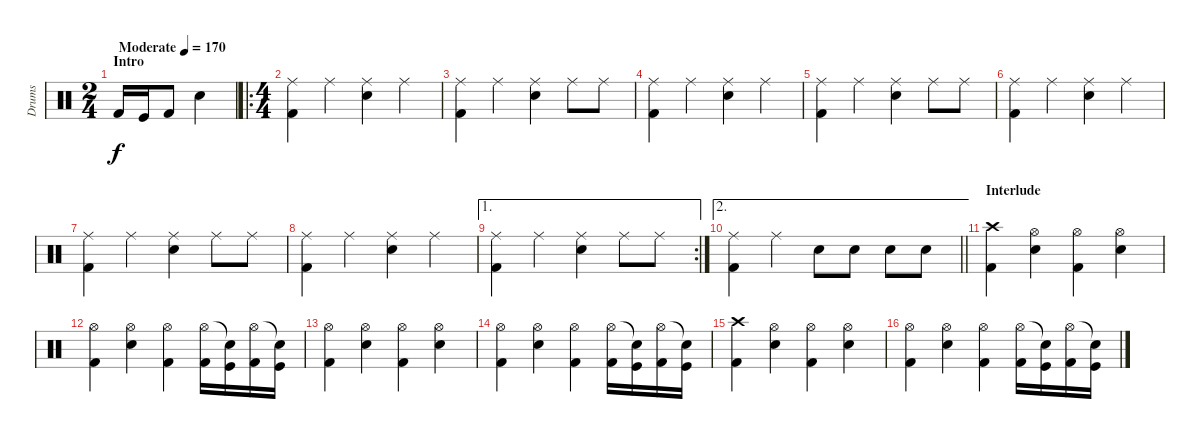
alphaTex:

\track ("Drums" "Drums") {instrument percussion}
\staff {score}
\articulation defaults
\ts (2 4)
\section ("" "Intro")
\tempo (170 "Moderate")
\clef neutral
\ks c "Kick (hit) 2".16{dy f} "Kick (hit)".16 "Kick (hit) 2".8 "Electric Snare (hit)".4
|
\ro
\ts (4 4)
("Ride (middle)" "Kick (hit) 2").4 "Ride (middle)".4 ("Ride (middle)" "Electric Snare (hit)").4 "Ride (middle)".4 |
("Ride (middle)" "Kick (hit) 2").4 "Ride (middle)".4 ("Ride (middle)" "Electric Snare (hit)").4 "Ride (middle)".8 "Ride (middle)".8 |
("Ride (middle)" "Kick (hit) 2").4 "Ride (middle)".4 ("Ride (middle)" "Electric Snare (hit)").4 "Ride (middle)".4 |
("Ride (middle)" "Kick (hit) 2").4 "Ride (middle)".4 ("Ride (middle)" "Electric Snare (hit)").4 "Ride (middle)".8 "Ride (middle)".8 |
("Ride (middle)" "Kick (hit) 2").4 "Ride (middle)".4 ("Ride (middle)" "Electric Snare (hit)").4 "Ride (middle)".4 |
("Ride (middle)" "Kick (hit) 2").4 "Ride (middle)".4 ("Ride (middle)" "Electric Snare (hit)").4 "Ride (middle)".8 "Ride (middle)".8 |
("Ride (middle)" "Kick (hit) 2").4 "Ride (middle)".4 ("Ride (middle)" "Electric Snare (hit)").4 "Ride (middle)".4 |
\ae 1
\rc 2
("Ride (middle)" "Kick (hit) 2").4 "Ride (middle)".4 ("Ride (middle)" "Electric Snare (hit)").4 "Ride (middle)".8 "Ride (middle)".8 |
\ae 2
\barLineRight lightlight
("Ride (middle)" "Kick (hit) 2").4 "Ride (middle)".4 "Electric Snare (hit)".8{bd 60} "Electric Snare (hit)".8{bu 60} "Electric Snare (hit)".8{bd 60} "Electric Snare (hit)".8{bu 60} |
\section ("" "Interlude")
("Crash high (hit)" "Kick (hit) 2").4 ("Hi-Hat (open)" "Electric Snare (hit)").4 ("Hi-Hat (open)" "Kick (hit) 2").4 ("Hi-Hat (open)" "Electric Snare (hit)").4 |
("Hi-Hat (open)" "Kick (hit) 2").4 ("Hi-Hat (open)" "Electric Snare (hit)").4 ("Hi-Hat (open)" "Kick (hit) 2").4 ("Hi-Hat (open)" "Kick (hit) 2").16 ("Snare (hit)"{t} "Kick (hit)").16 ("Hi-Hat (open)" "Kick (hit) 2").16 ("Snare (hit)"{t} "Kick (hit)").16 |
("Hi-Hat (open)" "Kick (hit) 2").4 ("Hi-Hat (open)" "Electric Snare (hit)").4 ("Hi-Hat (open)" "Kick (hit) 2").4 ("Hi-Hat (open)" "Electric Snare (hit)").4 |
("Hi-Hat (open)" "Kick (hit) 2").4 ("Hi-Hat (open)" "Electric Snare (hit)").4 ("Hi-Hat (open)" "Kick (hit) 2").4 ("Hi-Hat (open)" "Kick (hit) 2").16 ("Snare (hit)"{t} "Kick (hit)").16 ("Hi-Hat (open)" "Kick (hit) 2").16 ("Snare (hit)"{t} "Kick (hit)").16 |
("Crash high (hit)" "Kick (hit) 2").4 ("Hi-Hat (open)" "Electric Snare (hit)").4 ("Hi-Hat (open)" "Kick (hit) 2").4 ("Hi-Hat (open)" "Electric Snare (hit)").4 |
("Hi-Hat (open)" "Kick (hit) 2").4 ("Hi-Hat (open)" "Electric Snare (hit)").4 ("Hi-Hat (open)" "Kick (hit) 2").4 ("Hi-Hat (open)" "Kick (hit) 2").16 ("Snare (hit)"{t} "Kick (hit)").16 ("Hi-Hat (open)" "Kick (hit) 2").16 ("Snare (hit)"{t} "Kick (hit)").16
